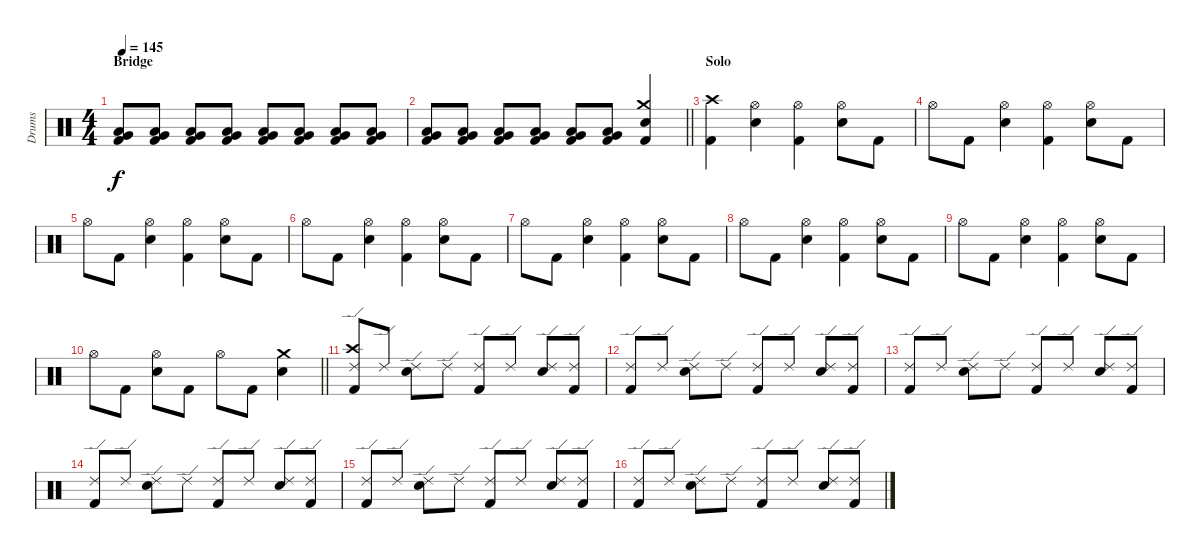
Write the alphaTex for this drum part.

\track ("Drums" "Drums") {instrument percussion}
\staff {score}
\articulation defaults
\ts (4 4)
\section ("" "Bridge")
\tempo 145
\clef neutral
\ks c
("Very Low Tom (hit)" "Low Floor Tom (hit)" "Kick (hit) 2").8{dy f} ("Very Low Tom (hit)" "Low Floor Tom (hit)" "Kick (hit) 2").8 ("Very Low Tom (hit)" "Low Floor Tom (hit)" "Kick (hit) 2").8 ("Very Low Tom (hit)" "Low Floor Tom (hit)" "Kick (hit) 2").8 ("Very Low Tom (hit)" "Low Floor Tom (hit)" "Kick (hit) 2").8 ("Very Low Tom (hit)" "Low Floor Tom (hit)" "Kick (hit) 2").8 ("Very Low Tom (hit)" "Low Floor Tom (hit)" "Kick (hit) 2").8 ("Very Low Tom (hit)" "Low Floor Tom (hit)" "Kick (hit) 2").8 |
\barLineRight lightlight
("Very Low Tom (hit)" "Low Floor Tom (hit)" "Kick (hit) 2").8 ("Very Low Tom (hit)" "Low Floor Tom (hit)" "Kick (hit) 2").8 ("Very Low Tom (hit)" "Low Floor Tom (hit)" "Kick (hit) 2").8 ("Very Low Tom (hit)" "Low Floor Tom (hit)" "Kick (hit) 2").8 ("Very Low Tom (hit)" "Low Floor Tom (hit)" "Kick (hit) 2").8 ("Very Low Tom (hit)" "Low Floor Tom (hit)" "Kick (hit) 2").8 ("Crash medium (hit)" "Snare (hit) 2" "Kick (hit) 2").4 |
\section ("" "Solo")
("Crash high (hit)" "Kick (hit) 2").4 ("Hi-Hat (open)" "Snare (hit) 2").4 ("Hi-Hat (open)" "Kick (hit) 2").4 ("Hi-Hat (open)" "Snare (hit) 2").8 "Kick (hit) 2".8 |
"Hi-Hat (open)".8 "Kick (hit) 2".8 ("Hi-Hat (open)" "Snare (hit) 2").4 ("Hi-Hat (open)" "Kick (hit) 2").4 ("Hi-Hat (open)" "Snare (hit) 2").8 "Kick (hit) 2".8 |
"Hi-Hat (open)".8 "Kick (hit) 2".8 ("Hi-Hat (open)" "Snare (hit) 2").4 ("Hi-Hat (open)" "Kick (hit) 2").4 ("Hi-Hat (open)" "Snare (hit) 2").8 "Kick (hit) 2".8 |
"Hi-Hat (open)".8 "Kick (hit) 2".8 ("Hi-Hat (open)" "Snare (hit) 2").4 ("Hi-Hat (open)" "Kick (hit) 2").4 ("Hi-Hat (open)" "Snare (hit) 2").8 "Kick (hit) 2".8 |
"Hi-Hat (open)".8 "Kick (hit) 2".8 ("Hi-Hat (open)" "Snare (hit) 2").4 ("Hi-Hat (open)" "Kick (hit) 2").4 ("Hi-Hat (open)" "Snare (hit) 2").8 "Kick (hit) 2".8 |
"Hi-Hat (open)".8 "Kick (hit) 2".8 ("Hi-Hat (open)" "Snare (hit) 2").4 ("Hi-Hat (open)" "Kick (hit) 2").4 ("Hi-Hat (open)" "Snare (hit) 2").8 "Kick (hit) 2".8 |
"Hi-Hat (open)".8 "Kick (hit) 2".8 ("Hi-Hat (open)" "Snare (hit) 2").4 ("Hi-Hat (open)" "Kick (hit) 2").4 ("Hi-Hat (open)" "Snare (hit) 2").8 "Kick (hit) 2".8 |
\barLineRight lightlight "Hi-Hat (open)".8 "Kick (hit) 2".8
("Hi-Hat (open)" "Snare (hit) 2").8 "Kick (hit) 2".8 "Hi-Hat (open)".8 "Kick (hit) 2".8 ("Crash medium (hit)" "Snare (hit) 2").4 |
("Ride (edge) 2" "Crash high (hit)" "Kick (hit) 2").8 "Ride (edge) 2".8 ("Ride (edge) 2" "Snare (hit) 2").8 "Ride (edge) 2".8 ("Ride (edge) 2" "Kick (hit) 2").8 "Ride (edge) 2".8 ("Ride (edge) 2" "Snare (hit) 2").8 ("Ride (edge) 2" "Kick (hit) 2").8 |
("Ride (edge) 2" "Kick (hit) 2").8 "Ride (edge) 2".8 ("Ride (edge) 2" "Snare (hit) 2").8 "Ride (edge) 2".8 ("Ride (edge) 2" "Kick (hit) 2").8 "Ride (edge) 2".8 ("Ride (edge) 2" "Snare (hit) 2").8 ("Ride (edge) 2" "Kick (hit) 2").8 |
("Ride (edge) 2" "Kick (hit) 2").8 "Ride (edge) 2".8 ("Ride (edge) 2" "Snare (hit) 2").8 "Ride (edge) 2".8 ("Ride (edge) 2" "Kick (hit) 2").8 "Ride (edge) 2".8 ("Ride (edge) 2" "Snare (hit) 2").8 ("Ride (edge) 2" "Kick (hit) 2").8 |
("Ride (edge) 2" "Kick (hit) 2").8 "Ride (edge) 2".8 ("Ride (edge) 2" "Snare (hit) 2").8 "Ride (edge) 2".8 ("Ride (edge) 2" "Kick (hit) 2").8 "Ride (edge) 2".8 ("Ride (edge) 2" "Snare (hit) 2").8 ("Ride (edge) 2" "Kick (hit) 2").8 |
("Ride (edge) 2" "Kick (hit) 2").8 "Ride (edge) 2".8 ("Ride (edge) 2" "Snare (hit) 2").8 "Ride (edge) 2".8 ("Ride (edge) 2" "Kick (hit) 2").8 "Ride (edge) 2".8 ("Ride (edge) 2" "Snare (hit) 2").8 ("Ride (edge) 2" "Kick (hit) 2").8 |
("Ride (edge) 2" "Kick (hit) 2").8 "Ride (edge) 2".8 ("Ride (edge) 2" "Snare (hit) 2").8 "Ride (edge) 2".8 ("Ride (edge) 2" "Kick (hit) 2").8 "Ride (edge) 2".8 ("Ride (edge) 2" "Snare (hit) 2").8 ("Ride (edge) 2" "Kick (hit) 2").8
